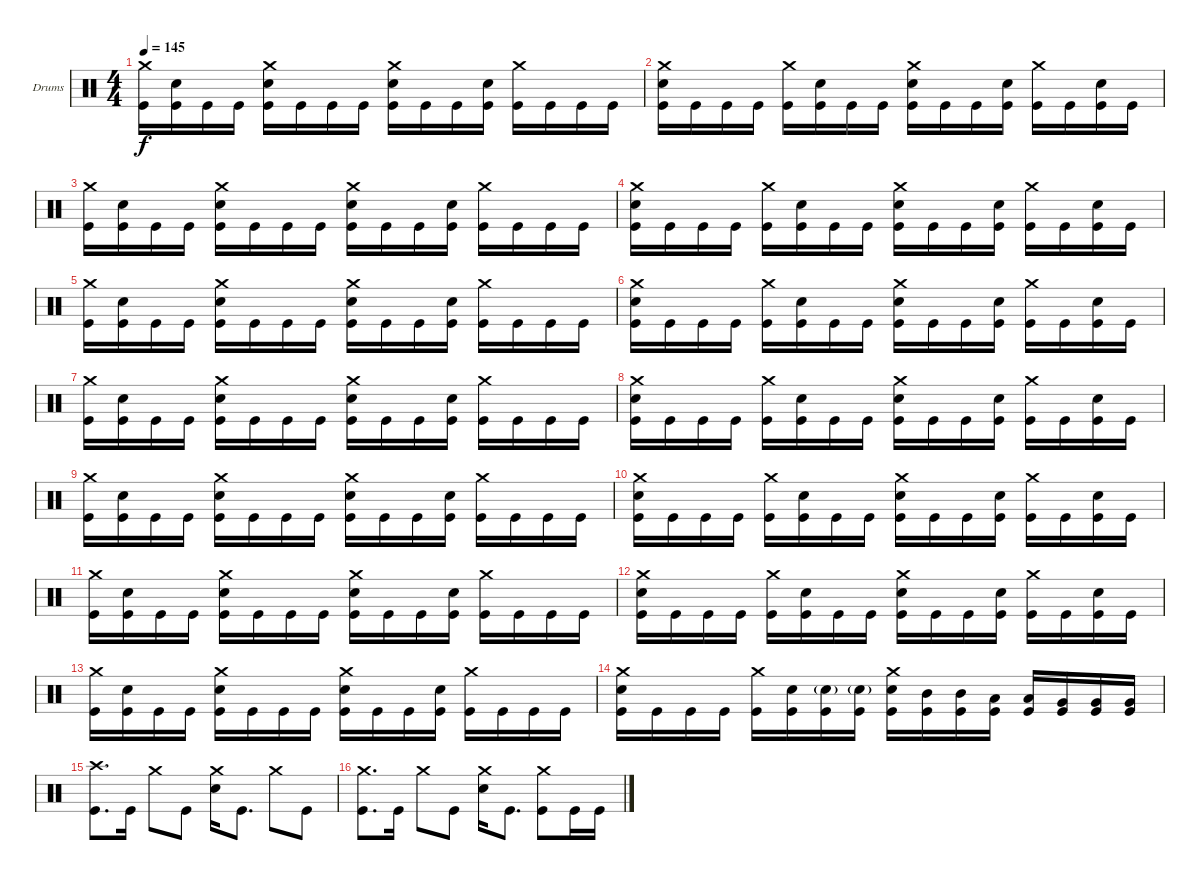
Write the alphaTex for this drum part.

\bracketExtendMode groupsimilarinstruments
\firstSystemTrackNameOrientation horizontal
\otherSystemsTrackNameOrientation horizontal
\track ("Drumkit" "Drums") {instrument percussion}
\staff {score}
\articulation defaults
\ts (4 4)
\tempo 145
\clef neutral
\ks c
("Crash medium (hit)" "Kick (hit)").16{dy f} ("Snare (hit) 2" "Kick (hit)").16 "Kick (hit)".16 "Kick (hit)".16 ("Crash medium (hit)" "Snare (hit) 2" "Kick (hit)").16 "Kick (hit)".16 "Kick (hit)".16 "Kick (hit)".16 ("Crash medium (hit)" "Snare (hit) 2" "Kick (hit)").16 "Kick (hit)".16 "Kick (hit)".16 ("Snare (hit) 2" "Kick (hit)").16 ("Crash medium (hit)" "Kick (hit)").16 "Kick (hit)".16 "Kick (hit)".16 "Kick (hit)".16 |
("Crash medium (hit)" "Snare (hit) 2" "Kick (hit)").16 "Kick (hit)".16 "Kick (hit)".16 "Kick (hit)".16 ("Crash medium (hit)" "Kick (hit)").16 ("Snare (hit) 2" "Kick (hit)").16 "Kick (hit)".16 "Kick (hit)".16 ("Crash medium (hit)" "Snare (hit) 2" "Kick (hit)").16 "Kick (hit)".16 "Kick (hit)".16 ("Snare (hit) 2" "Kick (hit)").16 ("Crash medium (hit)" "Kick (hit)").16 "Kick (hit)".16 ("Snare (hit) 2" "Kick (hit)").16 "Kick (hit)".16 |
("Crash medium (hit)" "Kick (hit)").16 ("Snare (hit) 2" "Kick (hit)").16 "Kick (hit)".16 "Kick (hit)".16 ("Crash medium (hit)" "Snare (hit) 2" "Kick (hit)").16 "Kick (hit)".16 "Kick (hit)".16 "Kick (hit)".16 ("Crash medium (hit)" "Snare (hit) 2" "Kick (hit)").16 "Kick (hit)".16 "Kick (hit)".16 ("Snare (hit) 2" "Kick (hit)").16 ("Crash medium (hit)" "Kick (hit)").16 "Kick (hit)".16 "Kick (hit)".16 "Kick (hit)".16 |
("Crash medium (hit)" "Snare (hit) 2" "Kick (hit)").16 "Kick (hit)".16 "Kick (hit)".16 "Kick (hit)".16 ("Crash medium (hit)" "Kick (hit)").16 ("Snare (hit) 2" "Kick (hit)").16 "Kick (hit)".16 "Kick (hit)".16 ("Crash medium (hit)" "Snare (hit) 2" "Kick (hit)").16 "Kick (hit)".16 "Kick (hit)".16 ("Snare (hit) 2" "Kick (hit)").16 ("Crash medium (hit)" "Kick (hit)").16 "Kick (hit)".16 ("Snare (hit) 2" "Kick (hit)").16 "Kick (hit)".16 |
("Crash medium (hit)" "Kick (hit)").16 ("Snare (hit) 2" "Kick (hit)").16 "Kick (hit)".16 "Kick (hit)".16 ("Crash medium (hit)" "Snare (hit) 2" "Kick (hit)").16 "Kick (hit)".16 "Kick (hit)".16 "Kick (hit)".16 ("Crash medium (hit)" "Snare (hit) 2" "Kick (hit)").16 "Kick (hit)".16 "Kick (hit)".16 ("Snare (hit) 2" "Kick (hit)").16 ("Crash medium (hit)" "Kick (hit)").16 "Kick (hit)".16 "Kick (hit)".16 "Kick (hit)".16 |
("Crash medium (hit)" "Snare (hit) 2" "Kick (hit)").16 "Kick (hit)".16 "Kick (hit)".16 "Kick (hit)".16 ("Crash medium (hit)" "Kick (hit)").16 ("Snare (hit) 2" "Kick (hit)").16 "Kick (hit)".16 "Kick (hit)".16 ("Crash medium (hit)" "Snare (hit) 2" "Kick (hit)").16 "Kick (hit)".16 "Kick (hit)".16 ("Snare (hit) 2" "Kick (hit)").16 ("Crash medium (hit)" "Kick (hit)").16 "Kick (hit)".16 ("Snare (hit) 2" "Kick (hit)").16 "Kick (hit)".16 |
("Crash medium (hit)" "Kick (hit)").16 ("Snare (hit) 2" "Kick (hit)").16 "Kick (hit)".16 "Kick (hit)".16 ("Crash medium (hit)" "Snare (hit) 2" "Kick (hit)").16 "Kick (hit)".16 "Kick (hit)".16 "Kick (hit)".16 ("Crash medium (hit)" "Snare (hit) 2" "Kick (hit)").16 "Kick (hit)".16 "Kick (hit)".16 ("Snare (hit) 2" "Kick (hit)").16 ("Crash medium (hit)" "Kick (hit)").16 "Kick (hit)".16 "Kick (hit)".16 "Kick (hit)".16 |
("Crash medium (hit)" "Snare (hit) 2" "Kick (hit)").16 "Kick (hit)".16 "Kick (hit)".16 "Kick (hit)".16 ("Crash medium (hit)" "Kick (hit)").16 ("Snare (hit) 2" "Kick (hit)").16 "Kick (hit)".16 "Kick (hit)".16 ("Crash medium (hit)" "Snare (hit) 2" "Kick (hit)").16 "Kick (hit)".16 "Kick (hit)".16 ("Snare (hit) 2" "Kick (hit)").16 ("Crash medium (hit)" "Kick (hit)").16 "Kick (hit)".16 ("Snare (hit) 2" "Kick (hit)").16 "Kick (hit)".16 |
("Crash medium (hit)" "Kick (hit)").16 ("Snare (hit) 2" "Kick (hit)").16 "Kick (hit)".16 "Kick (hit)".16 ("Crash medium (hit)" "Snare (hit) 2" "Kick (hit)").16 "Kick (hit)".16 "Kick (hit)".16 "Kick (hit)".16 ("Crash medium (hit)" "Snare (hit) 2" "Kick (hit)").16 "Kick (hit)".16 "Kick (hit)".16 ("Snare (hit) 2" "Kick (hit)").16 ("Crash medium (hit)" "Kick (hit)").16 "Kick (hit)".16 "Kick (hit)".16 "Kick (hit)".16 |
("Crash medium (hit)" "Snare (hit) 2" "Kick (hit)").16 "Kick (hit)".16 "Kick (hit)".16 "Kick (hit)".16 ("Crash medium (hit)" "Kick (hit)").16 ("Snare (hit) 2" "Kick (hit)").16 "Kick (hit)".16 "Kick (hit)".16 ("Crash medium (hit)" "Snare (hit) 2" "Kick (hit)").16 "Kick (hit)".16 "Kick (hit)".16 ("Snare (hit) 2" "Kick (hit)").16 ("Crash medium (hit)" "Kick (hit)").16 "Kick (hit)".16 ("Snare (hit) 2" "Kick (hit)").16 "Kick (hit)".16 |
("Crash medium (hit)" "Kick (hit)").16 ("Snare (hit) 2" "Kick (hit)").16 "Kick (hit)".16 "Kick (hit)".16 ("Crash medium (hit)" "Snare (hit) 2" "Kick (hit)").16 "Kick (hit)".16 "Kick (hit)".16 "Kick (hit)".16 ("Crash medium (hit)" "Snare (hit) 2" "Kick (hit)").16 "Kick (hit)".16 "Kick (hit)".16 ("Snare (hit) 2" "Kick (hit)").16 ("Crash medium (hit)" "Kick (hit)").16 "Kick (hit)".16 "Kick (hit)".16 "Kick (hit)".16 |
("Crash medium (hit)" "Snare (hit) 2" "Kick (hit)").16 "Kick (hit)".16 "Kick (hit)".16 "Kick (hit)".16 ("Crash medium (hit)" "Kick (hit)").16 ("Snare (hit) 2" "Kick (hit)").16 "Kick (hit)".16 "Kick (hit)".16 ("Crash medium (hit)" "Snare (hit) 2" "Kick (hit)").16 "Kick (hit)".16 "Kick (hit)".16 ("Snare (hit) 2" "Kick (hit)").16 ("Crash medium (hit)" "Kick (hit)").16 "Kick (hit)".16 ("Snare (hit) 2" "Kick (hit)").16 "Kick (hit)".16 |
("Crash medium (hit)" "Kick (hit)").16 ("Snare (hit) 2" "Kick (hit)").16 "Kick (hit)".16 "Kick (hit)".16 ("Crash medium (hit)" "Snare (hit) 2" "Kick (hit)").16 "Kick (hit)".16 "Kick (hit)".16 "Kick (hit)".16 ("Crash medium (hit)" "Snare (hit) 2" "Kick (hit)").16 "Kick (hit)".16 "Kick (hit)".16 ("Snare (hit) 2" "Kick (hit)").16 ("Crash medium (hit)" "Kick (hit)").16 "Kick (hit)".16 "Kick (hit)".16 "Kick (hit)".16 |
("Crash medium (hit)" "Snare (hit) 2" "Kick (hit)").16 "Kick (hit)".16 "Kick (hit)".16 "Kick (hit)".16 ("Crash medium (hit)" "Kick (hit)").16 ("Snare (hit) 2" "Kick (hit)").16 ("Snare (hit) 2"{g} "Kick (hit)").16 ("Snare (hit) 2"{g} "Kick (hit)").16 ("Crash medium (hit)" "Snare (hit) 2" "Kick (hit)").16 ("Mid Tom (hit)" "Kick (hit)").16 ("Mid Tom (hit)" "Kick (hit)").16 ("Low Tom (hit)" "Kick (hit)").16 ("Low Tom (hit)" "Kick (hit)").16 ("Very Low Tom (hit)" "Kick (hit)").16 ("Very Low Tom (hit)" "Kick (hit)").16 ("Very Low Tom (hit)" "Kick (hit)").16 |
("Crash high (hit)" "Kick (hit)").8{d} "Kick (hit)".16 "Crash medium (hit)".8 "Kick (hit)".8 ("Crash medium (hit)" "Snare (hit) 2").16 "Kick (hit)".8{d} "Crash medium (hit)".8 "Kick (hit)".8 |
("Crash medium (hit)" "Kick (hit)").8{d} "Kick (hit)".16 "Crash medium (hit)".8 "Kick (hit)".8 ("Crash medium (hit)" "Snare (hit) 2").16 "Kick (hit)".8{d} ("Crash medium (hit)" "Kick (hit)").8 "Kick (hit)".16 "Kick (hit)".16
